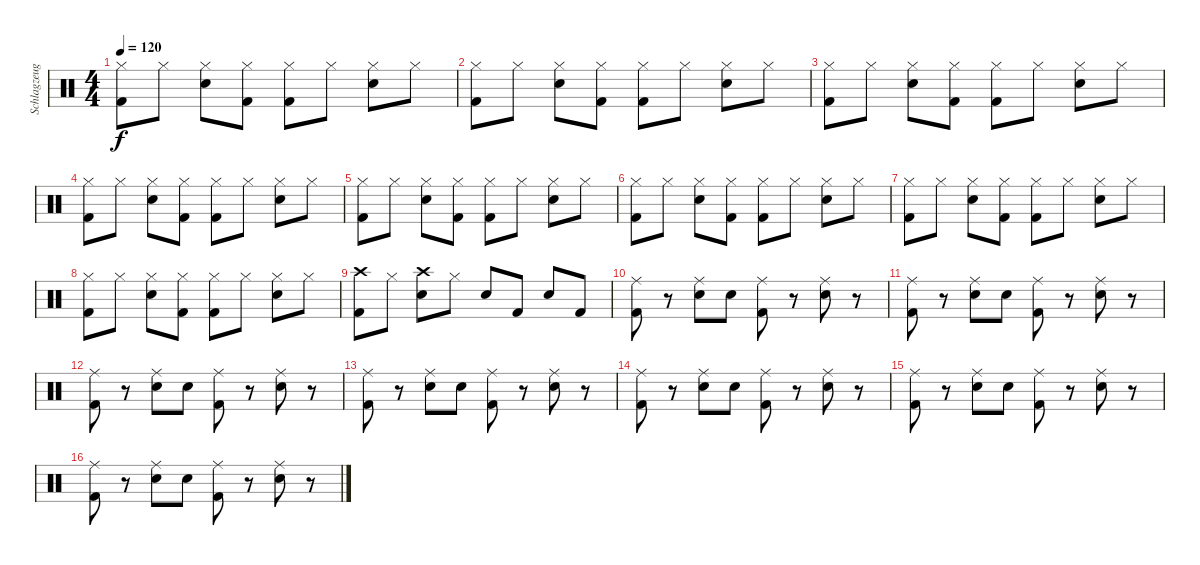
\track ("Schlagzeug" "Schlagzeug") {instrument percussion}
\staff {score}
\articulation defaults
\ts (4 4)
\tempo 120
\clef neutral
\ks c
("Hi-Hat (closed)" "Kick (hit) 2").8{dy f} "Hi-Hat (closed)".8 ("Hi-Hat (closed)" "Electric Snare (hit)").8 ("Hi-Hat (closed)" "Kick (hit) 2").8 ("Hi-Hat (closed)" "Kick (hit) 2").8 "Hi-Hat (closed)".8 ("Hi-Hat (closed)" "Electric Snare (hit)").8 "Hi-Hat (closed)".8 |
("Hi-Hat (closed)" "Kick (hit) 2").8 "Hi-Hat (closed)".8 ("Hi-Hat (closed)" "Electric Snare (hit)").8 ("Hi-Hat (closed)" "Kick (hit) 2").8 ("Hi-Hat (closed)" "Kick (hit) 2").8 "Hi-Hat (closed)".8 ("Hi-Hat (closed)" "Electric Snare (hit)").8 "Hi-Hat (closed)".8 |
("Hi-Hat (closed)" "Kick (hit) 2").8 "Hi-Hat (closed)".8 ("Hi-Hat (closed)" "Electric Snare (hit)").8 ("Hi-Hat (closed)" "Kick (hit) 2").8 ("Hi-Hat (closed)" "Kick (hit) 2").8 "Hi-Hat (closed)".8 ("Hi-Hat (closed)" "Electric Snare (hit)").8 "Hi-Hat (closed)".8 |
("Hi-Hat (closed)" "Kick (hit) 2").8 "Hi-Hat (closed)".8 ("Hi-Hat (closed)" "Electric Snare (hit)").8 ("Hi-Hat (closed)" "Kick (hit) 2").8 ("Hi-Hat (closed)" "Kick (hit) 2").8 "Hi-Hat (closed)".8 ("Hi-Hat (closed)" "Electric Snare (hit)").8 "Hi-Hat (closed)".8 |
("Hi-Hat (closed)" "Kick (hit) 2").8 "Hi-Hat (closed)".8 ("Hi-Hat (closed)" "Electric Snare (hit)").8 ("Hi-Hat (closed)" "Kick (hit) 2").8 ("Hi-Hat (closed)" "Kick (hit) 2").8 "Hi-Hat (closed)".8 ("Hi-Hat (closed)" "Electric Snare (hit)").8 "Hi-Hat (closed)".8 |
("Hi-Hat (closed)" "Kick (hit) 2").8 "Hi-Hat (closed)".8 ("Hi-Hat (closed)" "Electric Snare (hit)").8 ("Hi-Hat (closed)" "Kick (hit) 2").8 ("Hi-Hat (closed)" "Kick (hit) 2").8 "Hi-Hat (closed)".8 ("Hi-Hat (closed)" "Electric Snare (hit)").8 "Hi-Hat (closed)".8 |
("Hi-Hat (closed)" "Kick (hit) 2").8 "Hi-Hat (closed)".8 ("Hi-Hat (closed)" "Electric Snare (hit)").8 ("Hi-Hat (closed)" "Kick (hit) 2").8 ("Hi-Hat (closed)" "Kick (hit) 2").8 "Hi-Hat (closed)".8 ("Hi-Hat (closed)" "Electric Snare (hit)").8 "Hi-Hat (closed)".8 |
("Hi-Hat (closed)" "Kick (hit) 2").8 "Hi-Hat (closed)".8 ("Hi-Hat (closed)" "Electric Snare (hit)").8 ("Hi-Hat (closed)" "Kick (hit) 2").8 ("Hi-Hat (closed)" "Kick (hit) 2").8 "Hi-Hat (closed)".8 ("Hi-Hat (closed)" "Electric Snare (hit)").8 "Hi-Hat (closed)".8 |
("Crash high (hit)" "Kick (hit) 2").8 "Hi-Hat (closed)".8 ("Crash high (hit)" "Electric Snare (hit)").8 "Hi-Hat (closed)".8 "Electric Snare (hit)".8 "Kick (hit) 2".8 "Electric Snare (hit)".8 "Kick (hit) 2".8 |
("Ride (middle)" "Kick (hit) 2").8 r.8 ("Ride (middle)" "Electric Snare (hit)").8 "Electric Snare (hit)".8 ("Ride (middle)" "Kick (hit) 2").8 r.8 ("Ride (middle)" "Electric Snare (hit)").8 r.8 |
("Ride (middle)" "Kick (hit) 2").8 r.8 ("Ride (middle)" "Electric Snare (hit)").8 "Electric Snare (hit)".8 ("Ride (middle)" "Kick (hit) 2").8 r.8 ("Ride (middle)" "Electric Snare (hit)").8 r.8 |
("Ride (middle)" "Kick (hit) 2").8 r.8 ("Ride (middle)" "Electric Snare (hit)").8 "Electric Snare (hit)".8 ("Ride (middle)" "Kick (hit) 2").8 r.8 ("Ride (middle)" "Electric Snare (hit)").8 r.8 |
("Ride (middle)" "Kick (hit) 2").8 r.8 ("Ride (middle)" "Electric Snare (hit)").8 "Electric Snare (hit)".8 ("Ride (middle)" "Kick (hit) 2").8 r.8 ("Ride (middle)" "Electric Snare (hit)").8 r.8 |
("Ride (middle)" "Kick (hit) 2").8 r.8 ("Ride (middle)" "Electric Snare (hit)").8 "Electric Snare (hit)".8 ("Ride (middle)" "Kick (hit) 2").8 r.8 ("Ride (middle)" "Electric Snare (hit)").8 r.8 |
("Ride (middle)" "Kick (hit) 2").8 r.8 ("Ride (middle)" "Electric Snare (hit)").8 "Electric Snare (hit)".8 ("Ride (middle)" "Kick (hit) 2").8 r.8 ("Ride (middle)" "Electric Snare (hit)").8 r.8 |
("Ride (middle)" "Kick (hit) 2").8 r.8 ("Ride (middle)" "Electric Snare (hit)").8 "Electric Snare (hit)".8 ("Ride (middle)" "Kick (hit) 2").8 r.8 ("Ride (middle)" "Electric Snare (hit)").8 r.8
